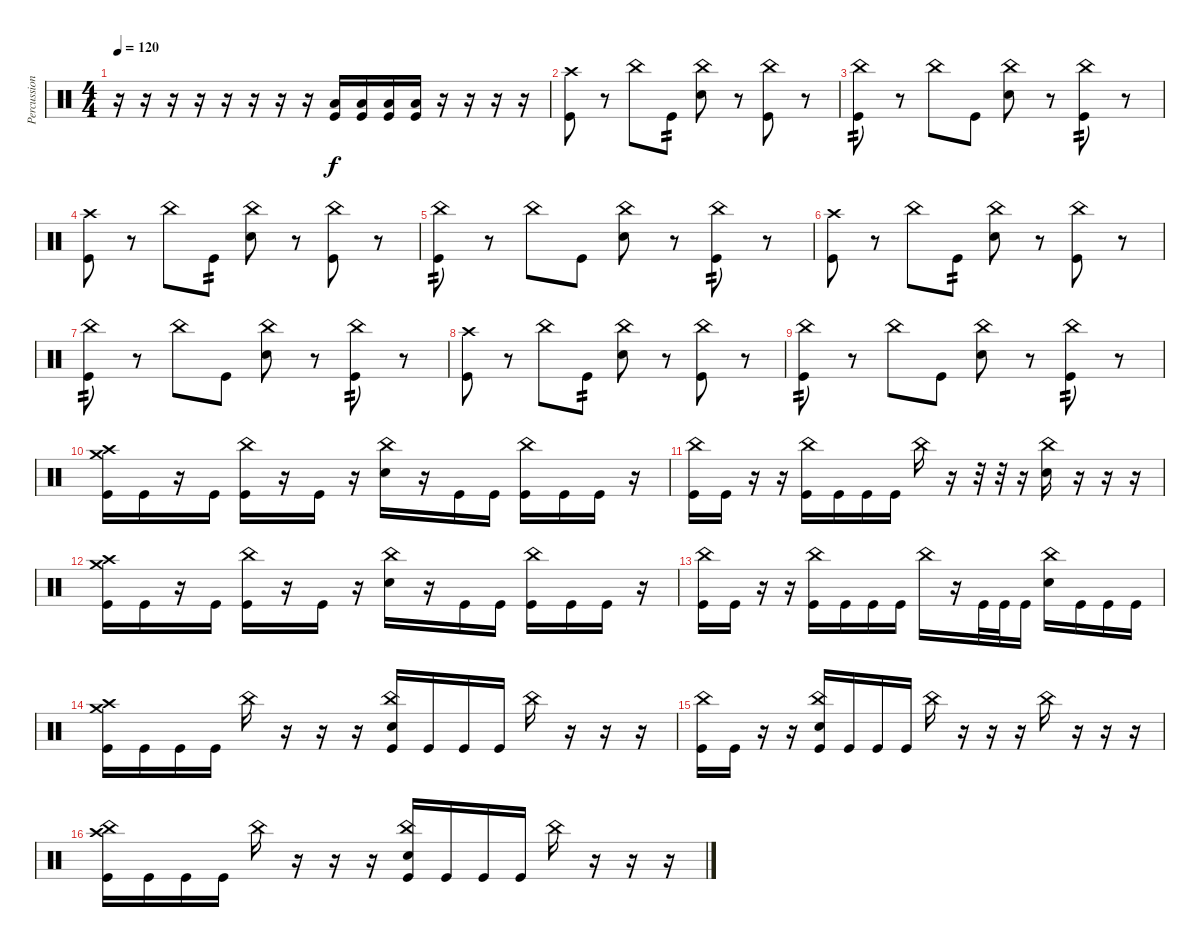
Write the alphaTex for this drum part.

\track ("Percussion" "Percussion") {instrument percussion}
\staff {score}
\articulation defaults
\ts (4 4)
\tempo 120
\clef neutral
\ks c
r.16{dy f} r.16 r.16 r.16 r.16 r.16 r.16 r.16 ("Low Tom (hit)" "Kick (hit)").16 ("Low Tom (hit)" "Kick (hit)").16 ("Low Tom (hit)" "Kick (hit)").16 ("Low Tom (hit)" "Kick (hit)").16 r.16 r.16 r.16 r.16 |
("Crash high (hit)" "Kick (hit)").8 r.8 "China (hit)".8 "Kick (hit)".8{tp 2} ("China (hit)" "Snare (hit) 2").8 r.8 ("China (hit)" "Kick (hit)").8 r.8 |
("China (hit)" "Kick (hit)").8{tp 2} r.8 "China (hit)".8 "Kick (hit)".8 ("China (hit)" "Snare (hit) 2").8 r.8 ("China (hit)" "Kick (hit)").8{tp 2} r.8 |
("Crash high (hit)" "Kick (hit)").8 r.8 "China (hit)".8 "Kick (hit)".8{tp 2} ("China (hit)" "Snare (hit) 2").8 r.8 ("China (hit)" "Kick (hit)").8 r.8 |
("China (hit)" "Kick (hit)").8{tp 2} r.8 "China (hit)".8 "Kick (hit)".8 ("China (hit)" "Snare (hit) 2").8 r.8 ("China (hit)" "Kick (hit)").8{tp 2} r.8 |
("Crash high (hit)" "Kick (hit)").8 r.8 "China (hit)".8 "Kick (hit)".8{tp 2} ("China (hit)" "Snare (hit) 2").8 r.8 ("China (hit)" "Kick (hit)").8 r.8 |
("China (hit)" "Kick (hit)").8{tp 2} r.8 "China (hit)".8 "Kick (hit)".8 ("China (hit)" "Snare (hit) 2").8 r.8 ("China (hit)" "Kick (hit)").8{tp 2} r.8 |
("Crash high (hit)" "Kick (hit)").8 r.8 "China (hit)".8 "Kick (hit)".8{tp 2} ("China (hit)" "Snare (hit) 2").8 r.8 ("China (hit)" "Kick (hit)").8 r.8 |
("China (hit)" "Kick (hit)").8{tp 2} r.8 "China (hit)".8 "Kick (hit)".8 ("China (hit)" "Snare (hit) 2").8 r.8 ("China (hit)" "Kick (hit)").8{tp 2} r.8 |
("Crash medium (hit)" "Crash high (hit)" "Kick (hit)").16 "Kick (hit)".16 r.16 "Kick (hit)".16 ("China (hit)" "Kick (hit)").16 r.16 "Kick (hit)".16 r.16 ("China (hit)" "Snare (hit) 2").16 r.16 "Kick (hit)".16 "Kick (hit)".16 ("China (hit)" "Kick (hit)").16 "Kick (hit)".16 "Kick (hit)".16 r.16 |
("China (hit)" "Kick (hit)").16 "Kick (hit)".16 r.16 r.16 ("China (hit)" "Kick (hit)").16 "Kick (hit)".16 "Kick (hit)".16 "Kick (hit)".16 "China (hit)".16 r.16 r.32 r.32 r.16 ("China (hit)" "Snare (hit) 2").16 r.16 r.16 r.16 |
("Crash medium (hit)" "Crash high (hit)" "Kick (hit)").16 "Kick (hit)".16 r.16 "Kick (hit)".16 ("China (hit)" "Kick (hit)").16 r.16 "Kick (hit)".16 r.16 ("China (hit)" "Snare (hit) 2").16 r.16 "Kick (hit)".16 "Kick (hit)".16 ("China (hit)" "Kick (hit)").16 "Kick (hit)".16 "Kick (hit)".16 r.16 |
("China (hit)" "Kick (hit)").16 "Kick (hit)".16 r.16 r.16 ("China (hit)" "Kick (hit)").16 "Kick (hit)".16 "Kick (hit)".16 "Kick (hit)".16 "China (hit)".16 r.16 "Kick (hit)".32 "Kick (hit)".32 "Kick (hit)".16 ("China (hit)" "Snare (hit) 2").16 "Kick (hit)".16 "Kick (hit)".16 "Kick (hit)".16 |
("Crash medium (hit)" "Crash high (hit)" "Kick (hit)").16 "Kick (hit)".16 "Kick (hit)".16 "Kick (hit)".16 "China (hit)".16 r.16 r.16 r.16 ("China (hit)" "Snare (hit) 2" "Kick (hit)").16 "Kick (hit)".16 "Kick (hit)".16 "Kick (hit)".16 "China (hit)".16 r.16 r.16 r.16 |
("China (hit)" "Kick (hit)").16 "Kick (hit)".16 r.16 r.16 ("Snare (hit) 2" "China (hit)" "Kick (hit)").16 "Kick (hit)".16 "Kick (hit)".16 "Kick (hit)".16 "China (hit)".16 r.16 r.16 r.16 "China (hit)".16 r.16 r.16 r.16 |
("Crash high (hit)" "China (hit)" "Kick (hit)").16 "Kick (hit)".16 "Kick (hit)".16 "Kick (hit)".16 "China (hit)".16 r.16 r.16 r.16 ("China (hit)" "Snare (hit) 2" "Kick (hit)").16 "Kick (hit)".16 "Kick (hit)".16 "Kick (hit)".16 "China (hit)".16 r.16 r.16 r.16
